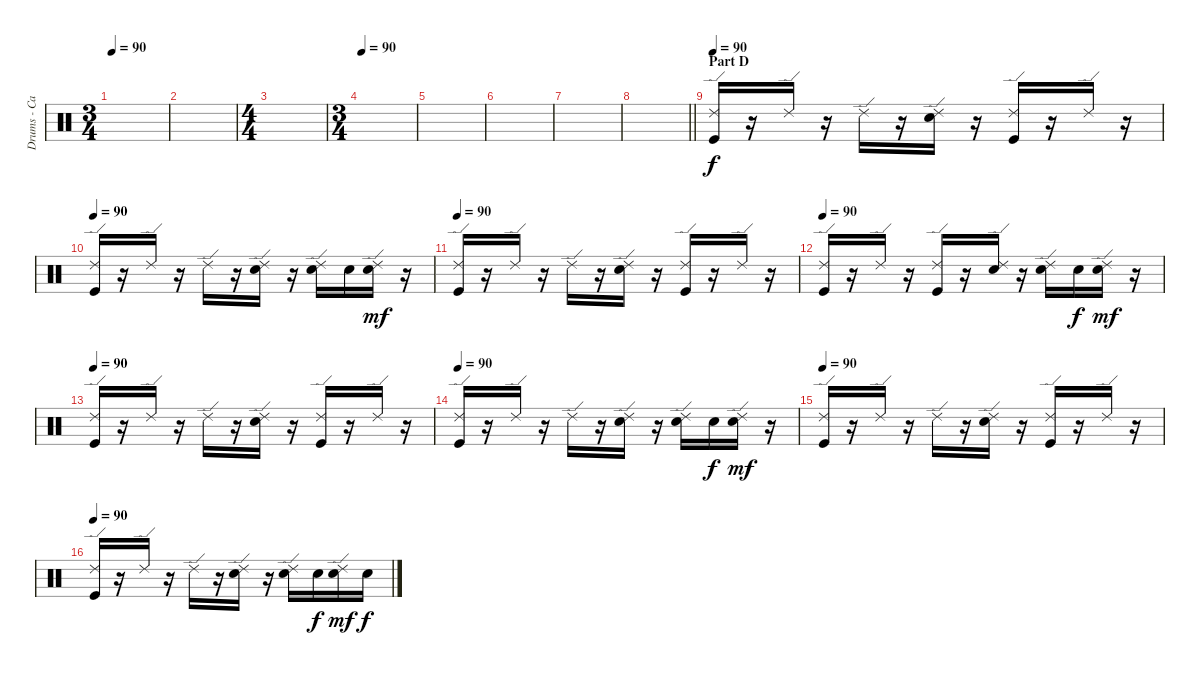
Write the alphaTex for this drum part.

\track ("Drums - Carla Azar" "Drums - Ca") {instrument percussion}
\staff {score}
\articulation defaults
\ts (3 4)
\tempo 90
\clef neutral
\ks c
|
|
\ts (4 4)
|
\ts (3 4)
\tempo 90
|
|
|
|
\barLineRight lightlight
|
\section ("" "Part D")
\tempo 90
("Ride (edge) 2" "Kick (hit)").16 r.16 "Ride (edge) 2".16 r.16 "Ride (edge) 2".16 r.16 ("Ride (edge) 2" "Snare (hit) 2").16 r.16 ("Ride (edge) 2" "Kick (hit)").16 r.16 "Ride (edge) 2".16 r.16 |
\tempo 90
("Ride (edge) 2" "Kick (hit)").16 r.16 "Ride (edge) 2".16 r.16 "Ride (edge) 2".16 r.16 ("Ride (edge) 2" "Snare (hit) 2").16 r.16 ("Ride (edge) 2" "Snare (hit) 2").16 "Snare (hit) 2".16{dy f} ("Ride (edge) 2" "Snare (hit) 2").16{dy mf} r.16 |
\tempo 90
("Ride (edge) 2" "Kick (hit)").16 r.16 "Ride (edge) 2".16 r.16 "Ride (edge) 2".16 r.16 ("Ride (edge) 2" "Snare (hit) 2").16 r.16 ("Ride (edge) 2" "Kick (hit)").16 r.16 "Ride (edge) 2".16 r.16 |
\tempo 90
("Ride (edge) 2" "Kick (hit)").16 r.16 "Ride (edge) 2".16 r.16 ("Ride (edge) 2" "Kick (hit)").16 r.16 ("Ride (edge) 2" "Snare (hit) 2").16 r.16 ("Ride (edge) 2" "Snare (hit) 2").16 "Snare (hit) 2".16{dy f} ("Ride (edge) 2" "Snare (hit) 2").16{dy mf} r.16 |
\tempo 90
("Ride (edge) 2" "Kick (hit)").16 r.16 "Ride (edge) 2".16 r.16 "Ride (edge) 2".16 r.16 ("Ride (edge) 2" "Snare (hit) 2").16 r.16 ("Ride (edge) 2" "Kick (hit)").16 r.16 "Ride (edge) 2".16 r.16 |
\tempo 90
("Ride (edge) 2" "Kick (hit)").16 r.16 "Ride (edge) 2".16 r.16 "Ride (edge) 2".16 r.16 ("Ride (edge) 2" "Snare (hit) 2").16 r.16 ("Ride (edge) 2" "Snare (hit) 2").16 "Snare (hit) 2".16{dy f} ("Ride (edge) 2" "Snare (hit) 2").16{dy mf} r.16 |
\tempo 90
("Ride (edge) 2" "Kick (hit)").16 r.16 "Ride (edge) 2".16 r.16 "Ride (edge) 2".16 r.16 ("Ride (edge) 2" "Snare (hit) 2").16 r.16 ("Ride (edge) 2" "Kick (hit)").16 r.16 "Ride (edge) 2".16 r.16 |
\tempo 90
("Ride (edge) 2" "Kick (hit)").16 r.16 "Ride (edge) 2".16 r.16 "Ride (edge) 2".16 r.16 ("Ride (edge) 2" "Snare (hit) 2").16 r.16 ("Ride (edge) 2" "Snare (hit) 2").16 "Snare (hit) 2".16{dy f} ("Ride (edge) 2" "Snare (hit) 2").16{dy mf} "Snare (hit) 2".16{dy f}
